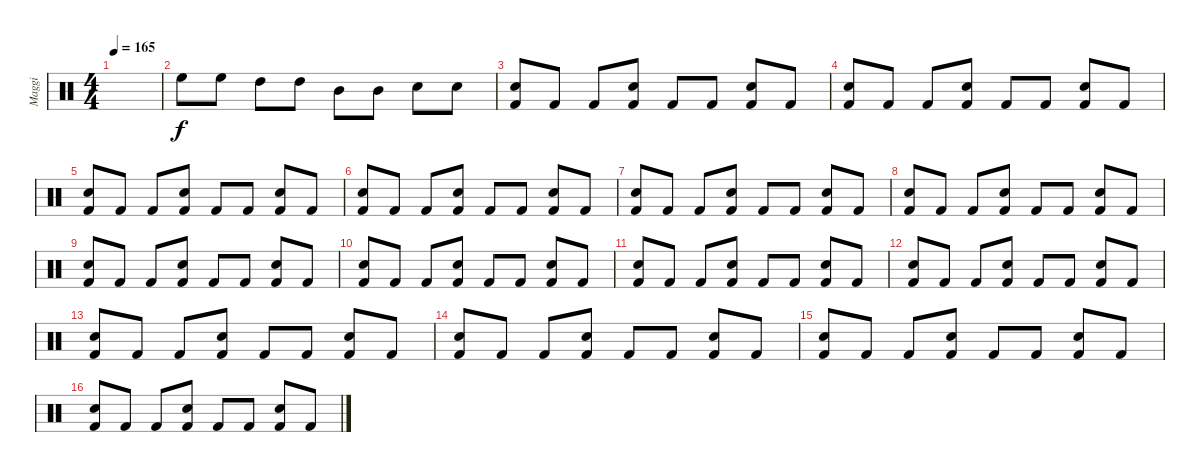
\track ("Maggi" "Maggi") {instrument percussion}
\staff {score}
\articulation defaults
\ts (4 4)
\tempo 165
\clef neutral
\ks c
|
"High Floor Tom (hit)".8 "High Floor Tom (hit)".8 "High Tom (hit)".8 "High Tom (hit)".8 "Mid Tom (hit)".8 "Mid Tom (hit)".8 "Snare (hit) 2".8 "Snare (hit) 2".8 |
("Snare (hit) 2" "Kick (hit) 2").8 "Kick (hit) 2".8 "Kick (hit) 2".8 ("Snare (hit) 2" "Kick (hit) 2").8 "Kick (hit) 2".8 "Kick (hit) 2".8 ("Snare (hit) 2" "Kick (hit) 2").8 "Kick (hit) 2".8 |
("Snare (hit) 2" "Kick (hit) 2").8 "Kick (hit) 2".8 "Kick (hit) 2".8 ("Snare (hit) 2" "Kick (hit) 2").8 "Kick (hit) 2".8 "Kick (hit) 2".8 ("Snare (hit) 2" "Kick (hit) 2").8 "Kick (hit) 2".8 |
("Snare (hit) 2" "Kick (hit) 2").8 "Kick (hit) 2".8 "Kick (hit) 2".8 ("Snare (hit) 2" "Kick (hit) 2").8 "Kick (hit) 2".8 "Kick (hit) 2".8 ("Snare (hit) 2" "Kick (hit) 2").8 "Kick (hit) 2".8 |
("Snare (hit) 2" "Kick (hit) 2").8 "Kick (hit) 2".8 "Kick (hit) 2".8 ("Snare (hit) 2" "Kick (hit) 2").8 "Kick (hit) 2".8 "Kick (hit) 2".8 ("Snare (hit) 2" "Kick (hit) 2").8 "Kick (hit) 2".8 |
("Snare (hit) 2" "Kick (hit) 2").8 "Kick (hit) 2".8 "Kick (hit) 2".8 ("Snare (hit) 2" "Kick (hit) 2").8 "Kick (hit) 2".8 "Kick (hit) 2".8 ("Snare (hit) 2" "Kick (hit) 2").8 "Kick (hit) 2".8 |
("Snare (hit) 2" "Kick (hit) 2").8 "Kick (hit) 2".8 "Kick (hit) 2".8 ("Snare (hit) 2" "Kick (hit) 2").8 "Kick (hit) 2".8 "Kick (hit) 2".8 ("Snare (hit) 2" "Kick (hit) 2").8 "Kick (hit) 2".8 |
("Snare (hit) 2" "Kick (hit) 2").8 "Kick (hit) 2".8 "Kick (hit) 2".8 ("Snare (hit) 2" "Kick (hit) 2").8 "Kick (hit) 2".8 "Kick (hit) 2".8 ("Snare (hit) 2" "Kick (hit) 2").8 "Kick (hit) 2".8 |
("Snare (hit) 2" "Kick (hit) 2").8 "Kick (hit) 2".8 "Kick (hit) 2".8 ("Snare (hit) 2" "Kick (hit) 2").8 "Kick (hit) 2".8 "Kick (hit) 2".8 ("Snare (hit) 2" "Kick (hit) 2").8 "Kick (hit) 2".8 |
("Snare (hit) 2" "Kick (hit) 2").8 "Kick (hit) 2".8 "Kick (hit) 2".8 ("Snare (hit) 2" "Kick (hit) 2").8 "Kick (hit) 2".8 "Kick (hit) 2".8 ("Snare (hit) 2" "Kick (hit) 2").8 "Kick (hit) 2".8 |
("Snare (hit) 2" "Kick (hit) 2").8 "Kick (hit) 2".8 "Kick (hit) 2".8 ("Snare (hit) 2" "Kick (hit) 2").8 "Kick (hit) 2".8 "Kick (hit) 2".8 ("Snare (hit) 2" "Kick (hit) 2").8 "Kick (hit) 2".8 |
("Snare (hit) 2" "Kick (hit) 2").8 "Kick (hit) 2".8 "Kick (hit) 2".8 ("Snare (hit) 2" "Kick (hit) 2").8 "Kick (hit) 2".8 "Kick (hit) 2".8 ("Snare (hit) 2" "Kick (hit) 2").8 "Kick (hit) 2".8 |
("Snare (hit) 2" "Kick (hit) 2").8 "Kick (hit) 2".8 "Kick (hit) 2".8 ("Snare (hit) 2" "Kick (hit) 2").8 "Kick (hit) 2".8 "Kick (hit) 2".8 ("Snare (hit) 2" "Kick (hit) 2").8 "Kick (hit) 2".8 |
("Snare (hit) 2" "Kick (hit) 2").8 "Kick (hit) 2".8 "Kick (hit) 2".8 ("Snare (hit) 2" "Kick (hit) 2").8 "Kick (hit) 2".8 "Kick (hit) 2".8 ("Snare (hit) 2" "Kick (hit) 2").8 "Kick (hit) 2".8 |
("Snare (hit) 2" "Kick (hit) 2").8 "Kick (hit) 2".8 "Kick (hit) 2".8 ("Snare (hit) 2" "Kick (hit) 2").8 "Kick (hit) 2".8 "Kick (hit) 2".8 ("Snare (hit) 2" "Kick (hit) 2").8 "Kick (hit) 2".8
